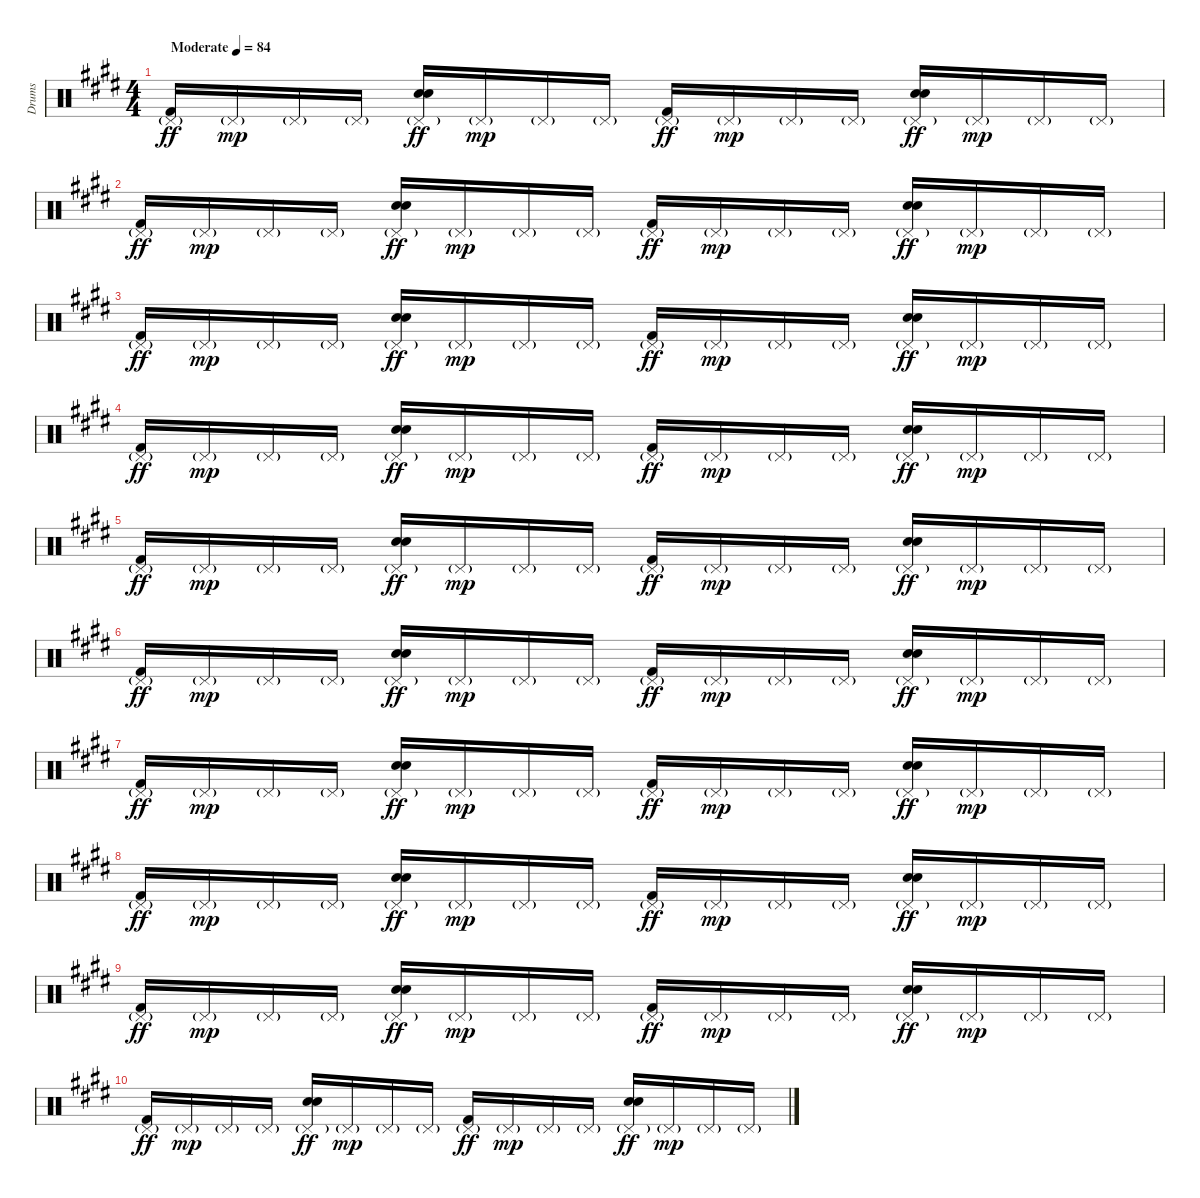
\track ("Drums" "Drums") {instrument percussion}
\staff {score}
\articulation defaults
\ts (4 4)
\tempo (84 "Moderate")
\clef neutral
\ks c#minor
("Pedal Hi-Hat (hit)"{g} "Kick (hit) 2").16{dy ff} "Pedal Hi-Hat (hit)"{g}.16{dy mp} "Pedal Hi-Hat (hit)"{g}.16 "Pedal Hi-Hat (hit)"{g}.16 ("Pedal Hi-Hat (hit)"{g} "Hand Clap (hit)" "Hand Clap (hit)").16{dy ff} "Pedal Hi-Hat (hit)"{g}.16{dy mp} "Pedal Hi-Hat (hit)"{g}.16 "Pedal Hi-Hat (hit)"{g}.16 ("Pedal Hi-Hat (hit)"{g} "Kick (hit) 2").16{dy ff} "Pedal Hi-Hat (hit)"{g}.16{dy mp} "Pedal Hi-Hat (hit)"{g}.16 "Pedal Hi-Hat (hit)"{g}.16 ("Pedal Hi-Hat (hit)"{g} "Hand Clap (hit)" "Hand Clap (hit)").16{dy ff} "Pedal Hi-Hat (hit)"{g}.16{dy mp} "Pedal Hi-Hat (hit)"{g}.16 "Pedal Hi-Hat (hit)"{g}.16 |
("Pedal Hi-Hat (hit)"{g} "Kick (hit) 2").16{dy ff} "Pedal Hi-Hat (hit)"{g}.16{dy mp} "Pedal Hi-Hat (hit)"{g}.16 "Pedal Hi-Hat (hit)"{g}.16 ("Pedal Hi-Hat (hit)"{g} "Hand Clap (hit)" "Hand Clap (hit)").16{dy ff} "Pedal Hi-Hat (hit)"{g}.16{dy mp} "Pedal Hi-Hat (hit)"{g}.16 "Pedal Hi-Hat (hit)"{g}.16 ("Pedal Hi-Hat (hit)"{g} "Kick (hit) 2").16{dy ff} "Pedal Hi-Hat (hit)"{g}.16{dy mp} "Pedal Hi-Hat (hit)"{g}.16 "Pedal Hi-Hat (hit)"{g}.16 ("Pedal Hi-Hat (hit)"{g} "Hand Clap (hit)" "Hand Clap (hit)").16{dy ff} "Pedal Hi-Hat (hit)"{g}.16{dy mp} "Pedal Hi-Hat (hit)"{g}.16 "Pedal Hi-Hat (hit)"{g}.16 |
("Pedal Hi-Hat (hit)"{g} "Kick (hit) 2").16{dy ff} "Pedal Hi-Hat (hit)"{g}.16{dy mp} "Pedal Hi-Hat (hit)"{g}.16 "Pedal Hi-Hat (hit)"{g}.16 ("Pedal Hi-Hat (hit)"{g} "Hand Clap (hit)" "Hand Clap (hit)").16{dy ff} "Pedal Hi-Hat (hit)"{g}.16{dy mp} "Pedal Hi-Hat (hit)"{g}.16 "Pedal Hi-Hat (hit)"{g}.16 ("Pedal Hi-Hat (hit)"{g} "Kick (hit) 2").16{dy ff} "Pedal Hi-Hat (hit)"{g}.16{dy mp} "Pedal Hi-Hat (hit)"{g}.16 "Pedal Hi-Hat (hit)"{g}.16 ("Pedal Hi-Hat (hit)"{g} "Hand Clap (hit)" "Hand Clap (hit)").16{dy ff} "Pedal Hi-Hat (hit)"{g}.16{dy mp} "Pedal Hi-Hat (hit)"{g}.16 "Pedal Hi-Hat (hit)"{g}.16 |
("Pedal Hi-Hat (hit)"{g} "Kick (hit) 2").16{dy ff} "Pedal Hi-Hat (hit)"{g}.16{dy mp} "Pedal Hi-Hat (hit)"{g}.16 "Pedal Hi-Hat (hit)"{g}.16 ("Pedal Hi-Hat (hit)"{g} "Hand Clap (hit)" "Hand Clap (hit)").16{dy ff} "Pedal Hi-Hat (hit)"{g}.16{dy mp} "Pedal Hi-Hat (hit)"{g}.16 "Pedal Hi-Hat (hit)"{g}.16 ("Pedal Hi-Hat (hit)"{g} "Kick (hit) 2").16{dy ff} "Pedal Hi-Hat (hit)"{g}.16{dy mp} "Pedal Hi-Hat (hit)"{g}.16 "Pedal Hi-Hat (hit)"{g}.16 ("Pedal Hi-Hat (hit)"{g} "Hand Clap (hit)" "Hand Clap (hit)").16{dy ff} "Pedal Hi-Hat (hit)"{g}.16{dy mp} "Pedal Hi-Hat (hit)"{g}.16 "Pedal Hi-Hat (hit)"{g}.16 |
("Pedal Hi-Hat (hit)"{g} "Kick (hit) 2").16{dy ff} "Pedal Hi-Hat (hit)"{g}.16{dy mp} "Pedal Hi-Hat (hit)"{g}.16 "Pedal Hi-Hat (hit)"{g}.16 ("Pedal Hi-Hat (hit)"{g} "Hand Clap (hit)" "Hand Clap (hit)").16{dy ff} "Pedal Hi-Hat (hit)"{g}.16{dy mp} "Pedal Hi-Hat (hit)"{g}.16 "Pedal Hi-Hat (hit)"{g}.16 ("Pedal Hi-Hat (hit)"{g} "Kick (hit) 2").16{dy ff} "Pedal Hi-Hat (hit)"{g}.16{dy mp} "Pedal Hi-Hat (hit)"{g}.16 "Pedal Hi-Hat (hit)"{g}.16 ("Pedal Hi-Hat (hit)"{g} "Hand Clap (hit)" "Hand Clap (hit)").16{dy ff} "Pedal Hi-Hat (hit)"{g}.16{dy mp} "Pedal Hi-Hat (hit)"{g}.16 "Pedal Hi-Hat (hit)"{g}.16 |
("Pedal Hi-Hat (hit)"{g} "Kick (hit) 2").16{dy ff} "Pedal Hi-Hat (hit)"{g}.16{dy mp} "Pedal Hi-Hat (hit)"{g}.16 "Pedal Hi-Hat (hit)"{g}.16 ("Pedal Hi-Hat (hit)"{g} "Hand Clap (hit)" "Hand Clap (hit)").16{dy ff} "Pedal Hi-Hat (hit)"{g}.16{dy mp} "Pedal Hi-Hat (hit)"{g}.16 "Pedal Hi-Hat (hit)"{g}.16 ("Pedal Hi-Hat (hit)"{g} "Kick (hit) 2").16{dy ff} "Pedal Hi-Hat (hit)"{g}.16{dy mp} "Pedal Hi-Hat (hit)"{g}.16 "Pedal Hi-Hat (hit)"{g}.16 ("Pedal Hi-Hat (hit)"{g} "Hand Clap (hit)" "Hand Clap (hit)").16{dy ff} "Pedal Hi-Hat (hit)"{g}.16{dy mp} "Pedal Hi-Hat (hit)"{g}.16 "Pedal Hi-Hat (hit)"{g}.16 |
("Pedal Hi-Hat (hit)"{g} "Kick (hit) 2").16{dy ff} "Pedal Hi-Hat (hit)"{g}.16{dy mp} "Pedal Hi-Hat (hit)"{g}.16 "Pedal Hi-Hat (hit)"{g}.16 ("Pedal Hi-Hat (hit)"{g} "Hand Clap (hit)" "Hand Clap (hit)").16{dy ff} "Pedal Hi-Hat (hit)"{g}.16{dy mp} "Pedal Hi-Hat (hit)"{g}.16 "Pedal Hi-Hat (hit)"{g}.16 ("Pedal Hi-Hat (hit)"{g} "Kick (hit) 2").16{dy ff} "Pedal Hi-Hat (hit)"{g}.16{dy mp} "Pedal Hi-Hat (hit)"{g}.16 "Pedal Hi-Hat (hit)"{g}.16 ("Pedal Hi-Hat (hit)"{g} "Hand Clap (hit)" "Hand Clap (hit)").16{dy ff} "Pedal Hi-Hat (hit)"{g}.16{dy mp} "Pedal Hi-Hat (hit)"{g}.16 "Pedal Hi-Hat (hit)"{g}.16 |
("Pedal Hi-Hat (hit)"{g} "Kick (hit) 2").16{dy ff} "Pedal Hi-Hat (hit)"{g}.16{dy mp} "Pedal Hi-Hat (hit)"{g}.16 "Pedal Hi-Hat (hit)"{g}.16 ("Pedal Hi-Hat (hit)"{g} "Hand Clap (hit)" "Hand Clap (hit)").16{dy ff} "Pedal Hi-Hat (hit)"{g}.16{dy mp} "Pedal Hi-Hat (hit)"{g}.16 "Pedal Hi-Hat (hit)"{g}.16 ("Pedal Hi-Hat (hit)"{g} "Kick (hit) 2").16{dy ff} "Pedal Hi-Hat (hit)"{g}.16{dy mp} "Pedal Hi-Hat (hit)"{g}.16 "Pedal Hi-Hat (hit)"{g}.16 ("Pedal Hi-Hat (hit)"{g} "Hand Clap (hit)" "Hand Clap (hit)").16{dy ff} "Pedal Hi-Hat (hit)"{g}.16{dy mp} "Pedal Hi-Hat (hit)"{g}.16 "Pedal Hi-Hat (hit)"{g}.16 |
("Pedal Hi-Hat (hit)"{g} "Kick (hit) 2").16{dy ff} "Pedal Hi-Hat (hit)"{g}.16{dy mp} "Pedal Hi-Hat (hit)"{g}.16 "Pedal Hi-Hat (hit)"{g}.16 ("Pedal Hi-Hat (hit)"{g} "Hand Clap (hit)" "Hand Clap (hit)").16{dy ff} "Pedal Hi-Hat (hit)"{g}.16{dy mp} "Pedal Hi-Hat (hit)"{g}.16 "Pedal Hi-Hat (hit)"{g}.16 ("Pedal Hi-Hat (hit)"{g} "Kick (hit) 2").16{dy ff} "Pedal Hi-Hat (hit)"{g}.16{dy mp} "Pedal Hi-Hat (hit)"{g}.16 "Pedal Hi-Hat (hit)"{g}.16 ("Pedal Hi-Hat (hit)"{g} "Hand Clap (hit)" "Hand Clap (hit)").16{dy ff} "Pedal Hi-Hat (hit)"{g}.16{dy mp} "Pedal Hi-Hat (hit)"{g}.16 "Pedal Hi-Hat (hit)"{g}.16 |
("Pedal Hi-Hat (hit)"{g} "Kick (hit) 2").16{dy ff} "Pedal Hi-Hat (hit)"{g}.16{dy mp} "Pedal Hi-Hat (hit)"{g}.16 "Pedal Hi-Hat (hit)"{g}.16 ("Pedal Hi-Hat (hit)"{g} "Hand Clap (hit)" "Hand Clap (hit)").16{dy ff} "Pedal Hi-Hat (hit)"{g}.16{dy mp} "Pedal Hi-Hat (hit)"{g}.16 "Pedal Hi-Hat (hit)"{g}.16 ("Pedal Hi-Hat (hit)"{g} "Kick (hit) 2").16{dy ff} "Pedal Hi-Hat (hit)"{g}.16{dy mp} "Pedal Hi-Hat (hit)"{g}.16 "Pedal Hi-Hat (hit)"{g}.16 ("Pedal Hi-Hat (hit)"{g} "Hand Clap (hit)" "Hand Clap (hit)").16{dy ff} "Pedal Hi-Hat (hit)"{g}.16{dy mp} "Pedal Hi-Hat (hit)"{g}.16 "Pedal Hi-Hat (hit)"{g}.16
